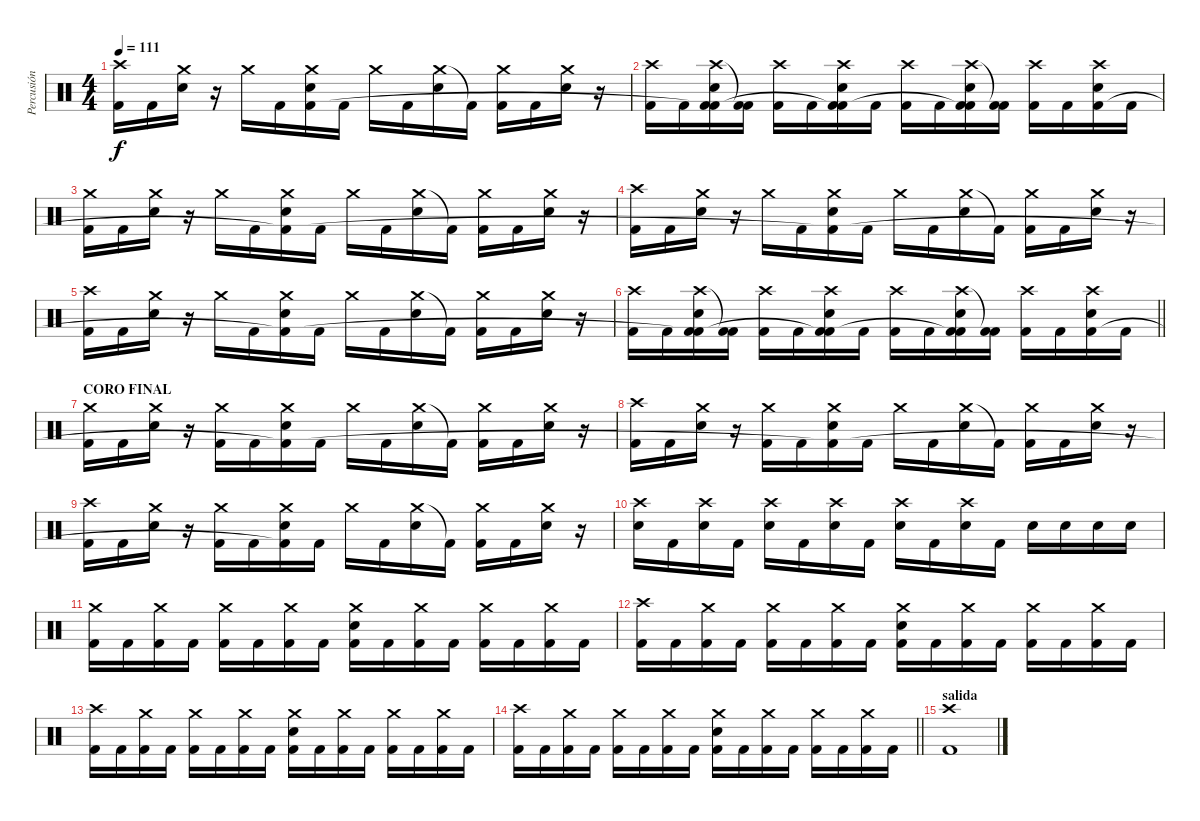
\track ("Percusión" "Percusión") {instrument percussion}
\staff {score}
\articulation defaults
\ts (4 4)
\tempo 111
\clef neutral
\ks c
("Crash high (hit)" "Kick (hit) 2").16{dy f} "Kick (hit) 2".16 ("Crash medium (hit)" "Electric Snare (hit)").16 r.16 "Crash medium (hit)".16 "Kick (hit) 2".16 ("Crash medium (hit)" "Electric Snare (hit)" "Kick (hit) 2"{t}).16 "Kick (hit) 2".16 "Crash medium (hit)".16 "Kick (hit) 2".16 ("Crash medium (hit)" "Electric Snare (hit)").16 "Kick (hit) 2"{t}.16 ("Crash medium (hit)" "Kick (hit) 2").16 "Kick (hit) 2".16 ("Crash medium (hit)" "Electric Snare (hit)").16 r.16 |
("Crash high (hit)" "Kick (hit) 2").16 "Kick (hit) 2".16 ("Crash high (hit)" "Electric Snare (hit)" "Kick (hit) 2"{t} "Kick (hit) 2").16 ("Kick (hit) 2"{t} "Kick (hit) 2").16 ("Crash high (hit)" "Kick (hit) 2").16 "Kick (hit) 2".16 ("Crash high (hit)" "Electric Snare (hit)" "Kick (hit) 2"{t} "Kick (hit) 2").16 "Kick (hit) 2".16 ("Crash high (hit)" "Kick (hit) 2").16 "Kick (hit) 2".16 ("Crash high (hit)" "Electric Snare (hit)" "Kick (hit) 2"{t} "Kick (hit) 2").16 ("Kick (hit) 2"{t} "Kick (hit) 2").16 ("Crash high (hit)" "Kick (hit) 2").16 "Kick (hit) 2".16 ("Crash high (hit)" "Electric Snare (hit)" "Kick (hit) 2").16 "Kick (hit) 2".16 |
("Crash medium (hit)" "Kick (hit) 2").16 "Kick (hit) 2".16 ("Crash medium (hit)" "Electric Snare (hit)").16 r.16 "Crash medium (hit)".16 "Kick (hit) 2".16 ("Crash medium (hit)" "Electric Snare (hit)" "Kick (hit) 2"{t}).16 "Kick (hit) 2".16 "Crash medium (hit)".16 "Kick (hit) 2".16 ("Crash medium (hit)" "Electric Snare (hit)").16 "Kick (hit) 2"{t}.16 ("Crash medium (hit)" "Kick (hit) 2").16 "Kick (hit) 2".16 ("Crash medium (hit)" "Electric Snare (hit)").16 r.16 |
("Crash high (hit)" "Kick (hit) 2").16 "Kick (hit) 2".16 ("Crash medium (hit)" "Electric Snare (hit)").16 r.16 "Crash medium (hit)".16 "Kick (hit) 2".16 ("Crash medium (hit)" "Electric Snare (hit)" "Kick (hit) 2"{t}).16 "Kick (hit) 2".16 "Crash medium (hit)".16 "Kick (hit) 2".16 ("Crash medium (hit)" "Electric Snare (hit)").16 "Kick (hit) 2"{t}.16 ("Crash medium (hit)" "Kick (hit) 2").16 "Kick (hit) 2".16 ("Crash medium (hit)" "Electric Snare (hit)").16 r.16 |
("Crash high (hit)" "Kick (hit) 2").16 "Kick (hit) 2".16 ("Crash medium (hit)" "Electric Snare (hit)").16 r.16 "Crash medium (hit)".16 "Kick (hit) 2".16 ("Crash medium (hit)" "Electric Snare (hit)" "Kick (hit) 2"{t}).16 "Kick (hit) 2".16 "Crash medium (hit)".16 "Kick (hit) 2".16 ("Crash medium (hit)" "Electric Snare (hit)").16 "Kick (hit) 2"{t}.16 ("Crash medium (hit)" "Kick (hit) 2").16 "Kick (hit) 2".16 ("Crash medium (hit)" "Electric Snare (hit)").16 r.16 |
\barLineRight lightlight
("Crash high (hit)" "Kick (hit) 2").16 "Kick (hit) 2".16 ("Crash high (hit)" "Electric Snare (hit)" "Kick (hit) 2"{t} "Kick (hit) 2").16 ("Kick (hit) 2"{t} "Kick (hit) 2").16 ("Crash high (hit)" "Kick (hit) 2").16 "Kick (hit) 2".16 ("Crash high (hit)" "Electric Snare (hit)" "Kick (hit) 2"{t} "Kick (hit) 2").16 "Kick (hit) 2".16 ("Crash high (hit)" "Kick (hit) 2").16 "Kick (hit) 2".16 ("Crash high (hit)" "Electric Snare (hit)" "Kick (hit) 2"{t} "Kick (hit) 2").16 ("Kick (hit) 2"{t} "Kick (hit) 2").16 ("Crash high (hit)" "Kick (hit) 2").16 "Kick (hit) 2".16 ("Crash high (hit)" "Electric Snare (hit)" "Kick (hit) 2").16 "Kick (hit) 2".16 |
\section ("" "CORO FINAL")
("Crash medium (hit)" "Kick (hit) 2").16 "Kick (hit) 2".16 ("Crash medium (hit)" "Electric Snare (hit)").16 r.16 ("Crash medium (hit)" "Kick (hit) 2").16 "Kick (hit) 2".16 ("Crash medium (hit)" "Electric Snare (hit)" "Kick (hit) 2"{t}).16 "Kick (hit) 2".16 "Crash medium (hit)".16 "Kick (hit) 2".16 ("Crash medium (hit)" "Electric Snare (hit)").16 "Kick (hit) 2"{t}.16 ("Crash medium (hit)" "Kick (hit) 2").16 "Kick (hit) 2".16 ("Crash medium (hit)" "Electric Snare (hit)").16 r.16 |
("Crash high (hit)" "Kick (hit) 2").16 "Kick (hit) 2".16 ("Crash medium (hit)" "Electric Snare (hit)").16 r.16 ("Crash medium (hit)" "Kick (hit) 2").16 "Kick (hit) 2".16 ("Crash medium (hit)" "Electric Snare (hit)" "Kick (hit) 2"{t}).16 "Kick (hit) 2".16 "Crash medium (hit)".16 "Kick (hit) 2".16 ("Crash medium (hit)" "Electric Snare (hit)").16 "Kick (hit) 2"{t}.16 ("Crash medium (hit)" "Kick (hit) 2").16 "Kick (hit) 2".16 ("Crash medium (hit)" "Electric Snare (hit)").16 r.16 |
("Crash high (hit)" "Kick (hit) 2").16 "Kick (hit) 2".16 ("Crash medium (hit)" "Electric Snare (hit)").16 r.16 ("Crash medium (hit)" "Kick (hit) 2").16 "Kick (hit) 2".16 ("Crash medium (hit)" "Electric Snare (hit)" "Kick (hit) 2"{t}).16 "Kick (hit) 2".16 "Crash medium (hit)".16 "Kick (hit) 2".16 ("Crash medium (hit)" "Electric Snare (hit)").16 "Kick (hit) 2"{t}.16 ("Crash medium (hit)" "Kick (hit) 2").16 "Kick (hit) 2".16 ("Crash medium (hit)" "Electric Snare (hit)").16 r.16 |
("Crash high (hit)" "Electric Snare (hit)").16 "Kick (hit) 2".16 ("Crash high (hit)" "Electric Snare (hit)").16 "Kick (hit) 2".16 ("Crash high (hit)" "Electric Snare (hit)").16 "Kick (hit) 2".16 ("Crash high (hit)" "Electric Snare (hit)").16 "Kick (hit) 2".16 ("Crash high (hit)" "Electric Snare (hit)").16 "Kick (hit) 2".16 ("Crash high (hit)" "Electric Snare (hit)").16 "Kick (hit) 2".16 "Electric Snare (hit)".16 "Electric Snare (hit)".16 "Electric Snare (hit)".16 "Electric Snare (hit)".16 |
("Crash medium (hit)" "Kick (hit) 2").16 "Kick (hit) 2".16 ("Crash medium (hit)" "Kick (hit) 2").16 "Kick (hit) 2".16 ("Crash medium (hit)" "Kick (hit) 2").16 "Kick (hit) 2".16 ("Crash medium (hit)" "Kick (hit) 2").16 "Kick (hit) 2".16 ("Crash medium (hit)" "Electric Snare (hit)" "Kick (hit) 2").16 "Kick (hit) 2".16 ("Crash medium (hit)" "Kick (hit) 2").16 "Kick (hit) 2".16 ("Crash medium (hit)" "Kick (hit) 2").16 "Kick (hit) 2".16 ("Crash medium (hit)" "Kick (hit) 2").16 "Kick (hit) 2".16 |
("Crash high (hit)" "Kick (hit) 2").16 "Kick (hit) 2".16 ("Crash medium (hit)" "Kick (hit) 2").16 "Kick (hit) 2".16 ("Crash medium (hit)" "Kick (hit) 2").16 "Kick (hit) 2".16 ("Crash medium (hit)" "Kick (hit) 2").16 "Kick (hit) 2".16 ("Crash medium (hit)" "Electric Snare (hit)" "Kick (hit) 2").16 "Kick (hit) 2".16 ("Crash medium (hit)" "Kick (hit) 2").16 "Kick (hit) 2".16 ("Crash medium (hit)" "Kick (hit) 2").16 "Kick (hit) 2".16 ("Crash medium (hit)" "Kick (hit) 2").16 "Kick (hit) 2".16 |
("Crash high (hit)" "Kick (hit) 2").16 "Kick (hit) 2".16 ("Crash medium (hit)" "Kick (hit) 2").16 "Kick (hit) 2".16 ("Crash medium (hit)" "Kick (hit) 2").16 "Kick (hit) 2".16 ("Crash medium (hit)" "Kick (hit) 2").16 "Kick (hit) 2".16 ("Crash medium (hit)" "Electric Snare (hit)" "Kick (hit) 2").16 "Kick (hit) 2".16 ("Crash medium (hit)" "Kick (hit) 2").16 "Kick (hit) 2".16 ("Crash medium (hit)" "Kick (hit) 2").16 "Kick (hit) 2".16 ("Crash medium (hit)" "Kick (hit) 2").16 "Kick (hit) 2".16 |
\barLineRight lightlight
("Crash high (hit)" "Kick (hit) 2").16 "Kick (hit) 2".16 ("Crash medium (hit)" "Kick (hit) 2").16 "Kick (hit) 2".16 ("Crash medium (hit)" "Kick (hit) 2").16 "Kick (hit) 2".16 ("Crash medium (hit)" "Kick (hit) 2").16 "Kick (hit) 2".16 ("Crash medium (hit)" "Electric Snare (hit)" "Kick (hit) 2").16 "Kick (hit) 2".16 ("Crash medium (hit)" "Kick (hit) 2").16 "Kick (hit) 2".16 ("Crash medium (hit)" "Kick (hit) 2").16 "Kick (hit) 2".16 ("Crash medium (hit)" "Kick (hit) 2").16 "Kick (hit) 2".16 |
\section ("" "salida")
("Crash high (hit)" "Kick (hit) 2").1
